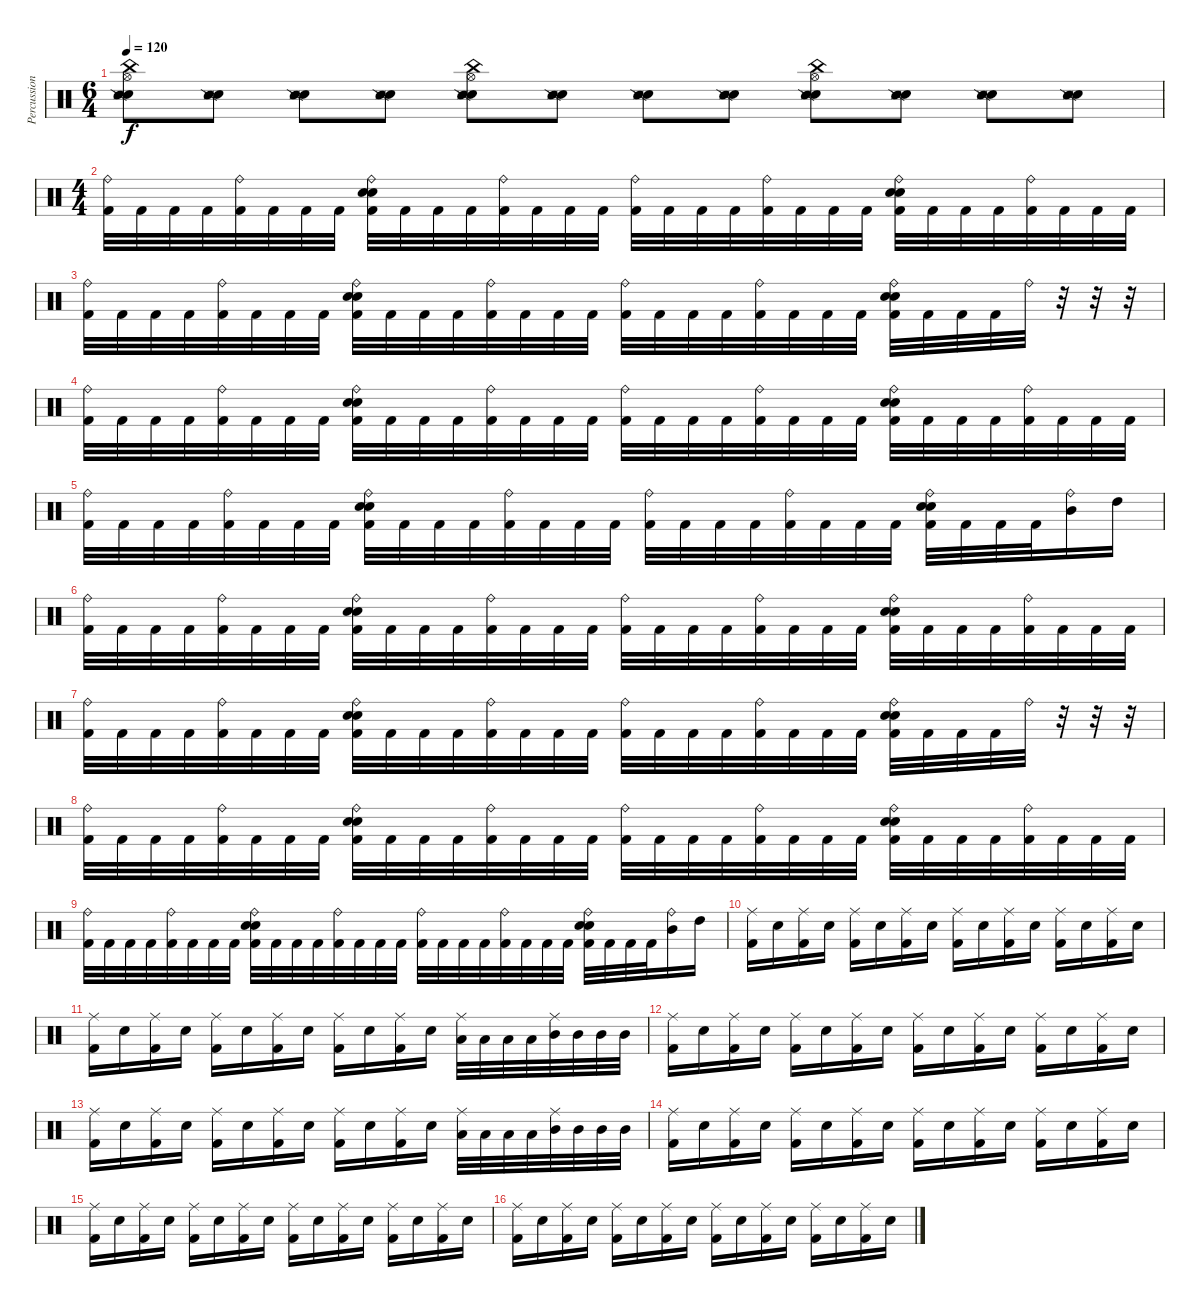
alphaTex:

\track ("Percussion" "Percussion") {instrument percussion}
\staff {score}
\articulation defaults
\ts (6 4)
\tempo 120
\clef neutral
\ks c
("Hi-Hat (open)" "Metronome (bell)" "China (hit)" "Snare (side stick) 3" "Snare (side stick) 2").8{dy f} ("Metronome (bell)" "Snare (side stick) 3" "Snare (side stick) 2").8 ("Metronome (bell)" "Snare (side stick) 3" "Snare (side stick) 2").8 ("Metronome (bell)" "Snare (side stick) 3" "Snare (side stick) 2").8 ("Hi-Hat (open)" "Metronome (bell)" "China (hit)" "Snare (side stick) 3" "Snare (side stick) 2").8 ("Metronome (bell)" "Snare (side stick) 3" "Snare (side stick) 2").8 ("Metronome (bell)" "Snare (side stick) 3" "Snare (side stick) 2").8 ("Metronome (bell)" "Snare (side stick) 3" "Snare (side stick) 2").8 ("Hi-Hat (open)" "Metronome (bell)" "China (hit)" "Snare (side stick) 3" "Snare (side stick) 2").8 ("Metronome (bell)" "Snare (side stick) 3" "Snare (side stick) 2").8 ("Metronome (bell)" "Snare (side stick) 3" "Snare (side stick) 2").8 ("Metronome (bell)" "Snare (side stick) 3" "Snare (side stick) 2").8 |
\ts (4 4)
("Ride (bell)" "Kick (hit) 2").32 "Kick (hit) 2".32 "Kick (hit) 2".32 "Kick (hit) 2".32 ("Ride (bell)" "Kick (hit) 2").32 "Kick (hit) 2".32 "Kick (hit) 2".32 "Kick (hit) 2".32 ("Ride (bell)" "Electric Snare (hit)" "Snare (hit) 2" "Kick (hit) 2").32 "Kick (hit) 2".32 "Kick (hit) 2".32 "Kick (hit) 2".32 ("Ride (bell)" "Kick (hit) 2").32 "Kick (hit) 2".32 "Kick (hit) 2".32 "Kick (hit) 2".32 ("Ride (bell)" "Kick (hit) 2").32 "Kick (hit) 2".32 "Kick (hit) 2".32 "Kick (hit) 2".32 ("Ride (bell)" "Kick (hit) 2").32 "Kick (hit) 2".32 "Kick (hit) 2".32 "Kick (hit) 2".32 ("Ride (bell)" "Electric Snare (hit)" "Snare (hit) 2" "Kick (hit) 2").32 "Kick (hit) 2".32 "Kick (hit) 2".32 "Kick (hit) 2".32 ("Ride (bell)" "Kick (hit) 2").32 "Kick (hit) 2".32 "Kick (hit) 2".32 "Kick (hit) 2".32 |
("Ride (bell)" "Kick (hit) 2").32 "Kick (hit) 2".32 "Kick (hit) 2".32 "Kick (hit) 2".32 ("Ride (bell)" "Kick (hit) 2").32 "Kick (hit) 2".32 "Kick (hit) 2".32 "Kick (hit) 2".32 ("Ride (bell)" "Electric Snare (hit)" "Snare (hit) 2" "Kick (hit) 2").32 "Kick (hit) 2".32 "Kick (hit) 2".32 "Kick (hit) 2".32 ("Ride (bell)" "Kick (hit) 2").32 "Kick (hit) 2".32 "Kick (hit) 2".32 "Kick (hit) 2".32 ("Ride (bell)" "Kick (hit) 2").32 "Kick (hit) 2".32 "Kick (hit) 2".32 "Kick (hit) 2".32 ("Ride (bell)" "Kick (hit) 2").32 "Kick (hit) 2".32 "Kick (hit) 2".32 "Kick (hit) 2".32 ("Ride (bell)" "Electric Snare (hit)" "Snare (hit) 2" "Kick (hit) 2").32 "Kick (hit) 2".32 "Kick (hit) 2".32 "Kick (hit) 2".32 "Ride (bell)".32 r.32 r.32 r.32 |
("Ride (bell)" "Kick (hit) 2").32 "Kick (hit) 2".32 "Kick (hit) 2".32 "Kick (hit) 2".32 ("Ride (bell)" "Kick (hit) 2").32 "Kick (hit) 2".32 "Kick (hit) 2".32 "Kick (hit) 2".32 ("Ride (bell)" "Electric Snare (hit)" "Snare (hit) 2" "Kick (hit) 2").32 "Kick (hit) 2".32 "Kick (hit) 2".32 "Kick (hit) 2".32 ("Ride (bell)" "Kick (hit) 2").32 "Kick (hit) 2".32 "Kick (hit) 2".32 "Kick (hit) 2".32 ("Ride (bell)" "Kick (hit) 2").32 "Kick (hit) 2".32 "Kick (hit) 2".32 "Kick (hit) 2".32 ("Ride (bell)" "Kick (hit) 2").32 "Kick (hit) 2".32 "Kick (hit) 2".32 "Kick (hit) 2".32 ("Ride (bell)" "Electric Snare (hit)" "Snare (hit) 2" "Kick (hit) 2").32 "Kick (hit) 2".32 "Kick (hit) 2".32 "Kick (hit) 2".32 ("Ride (bell)" "Kick (hit) 2").32 "Kick (hit) 2".32 "Kick (hit) 2".32 "Kick (hit) 2".32 |
("Ride (bell)" "Kick (hit) 2").32 "Kick (hit) 2".32 "Kick (hit) 2".32 "Kick (hit) 2".32 ("Ride (bell)" "Kick (hit) 2").32 "Kick (hit) 2".32 "Kick (hit) 2".32 "Kick (hit) 2".32 ("Ride (bell)" "Electric Snare (hit)" "Snare (hit) 2" "Kick (hit) 2").32 "Kick (hit) 2".32 "Kick (hit) 2".32 "Kick (hit) 2".32 ("Ride (bell)" "Kick (hit) 2").32 "Kick (hit) 2".32 "Kick (hit) 2".32 "Kick (hit) 2".32 ("Ride (bell)" "Kick (hit) 2").32 "Kick (hit) 2".32 "Kick (hit) 2".32 "Kick (hit) 2".32 ("Ride (bell)" "Kick (hit) 2").32 "Kick (hit) 2".32 "Kick (hit) 2".32 "Kick (hit) 2".32 ("Ride (bell)" "Electric Snare (hit)" "Snare (hit) 2" "Kick (hit) 2").32 "Kick (hit) 2".32 "Kick (hit) 2".32 "Kick (hit) 2".32 ("Ride (bell)" "Mid Tom (hit)").16 "High Tom (hit)".16 |
("Ride (bell)" "Kick (hit) 2").32 "Kick (hit) 2".32 "Kick (hit) 2".32 "Kick (hit) 2".32 ("Ride (bell)" "Kick (hit) 2").32 "Kick (hit) 2".32 "Kick (hit) 2".32 "Kick (hit) 2".32 ("Ride (bell)" "Electric Snare (hit)" "Snare (hit) 2" "Kick (hit) 2").32 "Kick (hit) 2".32 "Kick (hit) 2".32 "Kick (hit) 2".32 ("Ride (bell)" "Kick (hit) 2").32 "Kick (hit) 2".32 "Kick (hit) 2".32 "Kick (hit) 2".32 ("Ride (bell)" "Kick (hit) 2").32 "Kick (hit) 2".32 "Kick (hit) 2".32 "Kick (hit) 2".32 ("Ride (bell)" "Kick (hit) 2").32 "Kick (hit) 2".32 "Kick (hit) 2".32 "Kick (hit) 2".32 ("Ride (bell)" "Electric Snare (hit)" "Snare (hit) 2" "Kick (hit) 2").32 "Kick (hit) 2".32 "Kick (hit) 2".32 "Kick (hit) 2".32 ("Ride (bell)" "Kick (hit) 2").32 "Kick (hit) 2".32 "Kick (hit) 2".32 "Kick (hit) 2".32 |
("Ride (bell)" "Kick (hit) 2").32 "Kick (hit) 2".32 "Kick (hit) 2".32 "Kick (hit) 2".32 ("Ride (bell)" "Kick (hit) 2").32 "Kick (hit) 2".32 "Kick (hit) 2".32 "Kick (hit) 2".32 ("Ride (bell)" "Electric Snare (hit)" "Snare (hit) 2" "Kick (hit) 2").32 "Kick (hit) 2".32 "Kick (hit) 2".32 "Kick (hit) 2".32 ("Ride (bell)" "Kick (hit) 2").32 "Kick (hit) 2".32 "Kick (hit) 2".32 "Kick (hit) 2".32 ("Ride (bell)" "Kick (hit) 2").32 "Kick (hit) 2".32 "Kick (hit) 2".32 "Kick (hit) 2".32 ("Ride (bell)" "Kick (hit) 2").32 "Kick (hit) 2".32 "Kick (hit) 2".32 "Kick (hit) 2".32 ("Ride (bell)" "Electric Snare (hit)" "Snare (hit) 2" "Kick (hit) 2").32 "Kick (hit) 2".32 "Kick (hit) 2".32 "Kick (hit) 2".32 "Ride (bell)".32 r.32 r.32 r.32 |
("Ride (bell)" "Kick (hit) 2").32 "Kick (hit) 2".32 "Kick (hit) 2".32 "Kick (hit) 2".32 ("Ride (bell)" "Kick (hit) 2").32 "Kick (hit) 2".32 "Kick (hit) 2".32 "Kick (hit) 2".32 ("Ride (bell)" "Electric Snare (hit)" "Snare (hit) 2" "Kick (hit) 2").32 "Kick (hit) 2".32 "Kick (hit) 2".32 "Kick (hit) 2".32 ("Ride (bell)" "Kick (hit) 2").32 "Kick (hit) 2".32 "Kick (hit) 2".32 "Kick (hit) 2".32 ("Ride (bell)" "Kick (hit) 2").32 "Kick (hit) 2".32 "Kick (hit) 2".32 "Kick (hit) 2".32 ("Ride (bell)" "Kick (hit) 2").32 "Kick (hit) 2".32 "Kick (hit) 2".32 "Kick (hit) 2".32 ("Ride (bell)" "Electric Snare (hit)" "Snare (hit) 2" "Kick (hit) 2").32 "Kick (hit) 2".32 "Kick (hit) 2".32 "Kick (hit) 2".32 ("Ride (bell)" "Kick (hit) 2").32 "Kick (hit) 2".32 "Kick (hit) 2".32 "Kick (hit) 2".32 |
("Ride (bell)" "Kick (hit) 2").32 "Kick (hit) 2".32 "Kick (hit) 2".32 "Kick (hit) 2".32 ("Ride (bell)" "Kick (hit) 2").32 "Kick (hit) 2".32 "Kick (hit) 2".32 "Kick (hit) 2".32 ("Ride (bell)" "Electric Snare (hit)" "Snare (hit) 2" "Kick (hit) 2").32 "Kick (hit) 2".32 "Kick (hit) 2".32 "Kick (hit) 2".32 ("Ride (bell)" "Kick (hit) 2").32 "Kick (hit) 2".32 "Kick (hit) 2".32 "Kick (hit) 2".32 ("Ride (bell)" "Kick (hit) 2").32 "Kick (hit) 2".32 "Kick (hit) 2".32 "Kick (hit) 2".32 ("Ride (bell)" "Kick (hit) 2").32 "Kick (hit) 2".32 "Kick (hit) 2".32 "Kick (hit) 2".32 ("Ride (bell)" "Electric Snare (hit)" "Snare (hit) 2" "Kick (hit) 2").32 "Kick (hit) 2".32 "Kick (hit) 2".32 "Kick (hit) 2".32 ("Ride (bell)" "Mid Tom (hit)").16 "High Tom (hit)".16 |
("Ride (middle)" "Kick (hit) 2").16 "Snare (hit) 2".16 ("Ride (middle)" "Kick (hit) 2").16 "Snare (hit) 2".16 ("Ride (middle)" "Kick (hit) 2").16 "Snare (hit) 2".16 ("Ride (middle)" "Kick (hit) 2").16 "Snare (hit) 2".16 ("Ride (middle)" "Kick (hit) 2").16 "Snare (hit) 2".16 ("Ride (middle)" "Kick (hit) 2").16 "Snare (hit) 2".16 ("Ride (middle)" "Kick (hit) 2").16 "Snare (hit) 2".16 ("Ride (middle)" "Kick (hit) 2").16 "Snare (hit) 2".16 |
("Ride (middle)" "Kick (hit) 2").16 "Snare (hit) 2".16 ("Ride (middle)" "Kick (hit) 2").16 "Snare (hit) 2".16 ("Ride (middle)" "Kick (hit) 2").16 "Snare (hit) 2".16 ("Ride (middle)" "Kick (hit) 2").16 "Snare (hit) 2".16 ("Ride (middle)" "Kick (hit) 2").16 "Snare (hit) 2".16 ("Ride (middle)" "Kick (hit) 2").16 "Snare (hit) 2".16 ("Ride (middle)" "Low Tom (hit)").32 "Low Tom (hit)".32 "Low Tom (hit)".32 "Low Tom (hit)".32 ("Ride (middle)" "Mid Tom (hit)").32 "Mid Tom (hit)".32 "Mid Tom (hit)".32 "Mid Tom (hit)".32 |
("Ride (middle)" "Kick (hit) 2").16 "Snare (hit) 2".16 ("Ride (middle)" "Kick (hit) 2").16 "Snare (hit) 2".16 ("Ride (middle)" "Kick (hit) 2").16 "Snare (hit) 2".16 ("Ride (middle)" "Kick (hit) 2").16 "Snare (hit) 2".16 ("Ride (middle)" "Kick (hit) 2").16 "Snare (hit) 2".16 ("Ride (middle)" "Kick (hit) 2").16 "Snare (hit) 2".16 ("Ride (middle)" "Kick (hit) 2").16 "Snare (hit) 2".16 ("Ride (middle)" "Kick (hit) 2").16 "Snare (hit) 2".16 |
("Ride (middle)" "Kick (hit) 2").16 "Snare (hit) 2".16 ("Ride (middle)" "Kick (hit) 2").16 "Snare (hit) 2".16 ("Ride (middle)" "Kick (hit) 2").16 "Snare (hit) 2".16 ("Ride (middle)" "Kick (hit) 2").16 "Snare (hit) 2".16 ("Ride (middle)" "Kick (hit) 2").16 "Snare (hit) 2".16 ("Ride (middle)" "Kick (hit) 2").16 "Snare (hit) 2".16 ("Ride (middle)" "Low Tom (hit)").32 "Low Tom (hit)".32 "Low Tom (hit)".32 "Low Tom (hit)".32 ("Ride (middle)" "Mid Tom (hit)").32 "Mid Tom (hit)".32 "Mid Tom (hit)".32 "Mid Tom (hit)".32 |
("Ride (middle)" "Kick (hit) 2").16 "Snare (hit) 2".16 ("Ride (middle)" "Kick (hit) 2").16 "Snare (hit) 2".16 ("Ride (middle)" "Kick (hit) 2").16 "Snare (hit) 2".16 ("Ride (middle)" "Kick (hit) 2").16 "Snare (hit) 2".16 ("Ride (middle)" "Kick (hit) 2").16 "Snare (hit) 2".16 ("Ride (middle)" "Kick (hit) 2").16 "Snare (hit) 2".16 ("Ride (middle)" "Kick (hit) 2").16 "Snare (hit) 2".16 ("Ride (middle)" "Kick (hit) 2").16 "Snare (hit) 2".16 |
("Ride (middle)" "Kick (hit) 2").16 "Snare (hit) 2".16 ("Ride (middle)" "Kick (hit) 2").16 "Snare (hit) 2".16 ("Ride (middle)" "Kick (hit) 2").16 "Snare (hit) 2".16 ("Ride (middle)" "Kick (hit) 2").16 "Snare (hit) 2".16 ("Ride (middle)" "Kick (hit) 2").16 "Snare (hit) 2".16 ("Ride (middle)" "Kick (hit) 2").16 "Snare (hit) 2".16 ("Ride (middle)" "Kick (hit) 2").16 "Snare (hit) 2".16 ("Ride (middle)" "Kick (hit) 2").16 "Snare (hit) 2".16 |
("Ride (middle)" "Kick (hit) 2").16 "Snare (hit) 2".16 ("Ride (middle)" "Kick (hit) 2").16 "Snare (hit) 2".16 ("Ride (middle)" "Kick (hit) 2").16 "Snare (hit) 2".16 ("Ride (middle)" "Kick (hit) 2").16 "Snare (hit) 2".16 ("Ride (middle)" "Kick (hit) 2").16 "Snare (hit) 2".16 ("Ride (middle)" "Kick (hit) 2").16 "Snare (hit) 2".16 ("Ride (middle)" "Kick (hit) 2").16 "Snare (hit) 2".16 ("Ride (middle)" "Kick (hit) 2").16 "Snare (hit) 2".16
